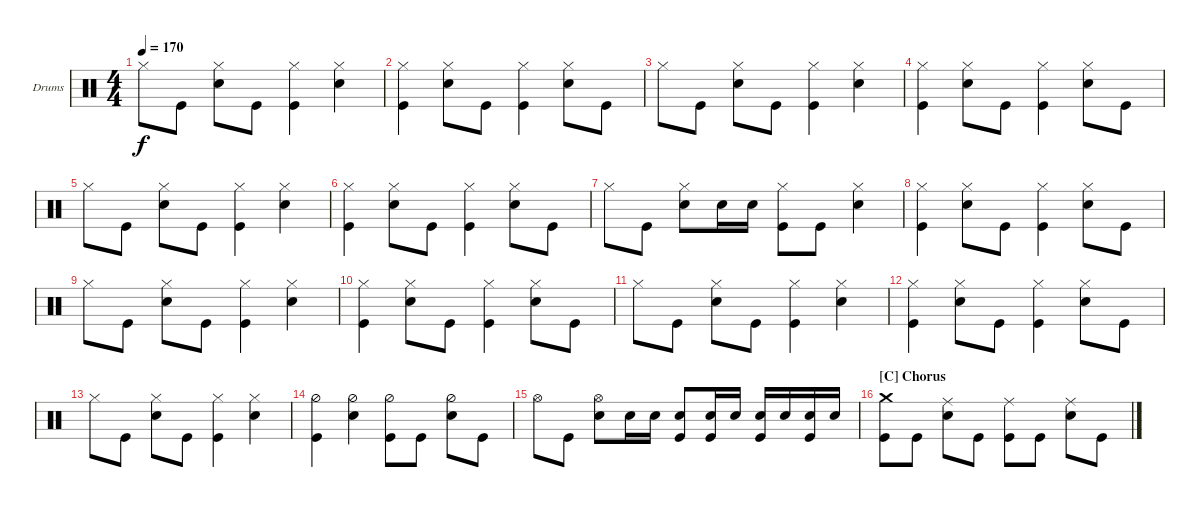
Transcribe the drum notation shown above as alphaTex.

\defaultSystemsLayout 4
\bracketExtendMode groupsimilarinstruments
\firstSystemTrackNameOrientation horizontal
\otherSystemsTrackNameOrientation horizontal
\track ("Benny Horowitz" "Drums") {instrument percussion}
\staff {score}
\articulation defaults
\ts (4 4)
\tempo 170
\clef neutral
\ks c "Hi-Hat (closed)".8{dy f} "Kick (hit)".8
("Snare (hit) 2" "Hi-Hat (closed)").8 "Kick (hit)".8 ("Kick (hit)" "Hi-Hat (closed)").4 ("Snare (hit) 2" "Hi-Hat (closed)").4 |
("Kick (hit)" "Hi-Hat (closed)").4 ("Snare (hit) 2" "Hi-Hat (closed)").8 "Kick (hit)".8 ("Kick (hit)" "Hi-Hat (closed)").4 ("Snare (hit) 2" "Hi-Hat (closed)").8 "Kick (hit)".8 |
"Hi-Hat (closed)".8 "Kick (hit)".8 ("Snare (hit) 2" "Hi-Hat (closed)").8 "Kick (hit)".8 ("Kick (hit)" "Hi-Hat (closed)").4 ("Snare (hit) 2" "Hi-Hat (closed)").4 |
("Kick (hit)" "Hi-Hat (closed)").4 ("Snare (hit) 2" "Hi-Hat (closed)").8 "Kick (hit)".8 ("Kick (hit)" "Hi-Hat (closed)").4 ("Snare (hit) 2" "Hi-Hat (closed)").8 "Kick (hit)".8 |
"Hi-Hat (closed)".8 "Kick (hit)".8 ("Snare (hit) 2" "Hi-Hat (closed)").8 "Kick (hit)".8 ("Kick (hit)" "Hi-Hat (closed)").4 ("Snare (hit) 2" "Hi-Hat (closed)").4 |
("Kick (hit)" "Hi-Hat (closed)").4 ("Snare (hit) 2" "Hi-Hat (closed)").8 "Kick (hit)".8 ("Kick (hit)" "Hi-Hat (closed)").4 ("Snare (hit) 2" "Hi-Hat (closed)").8 "Kick (hit)".8 |
"Hi-Hat (closed)".8 "Kick (hit)".8 ("Snare (hit) 2" "Hi-Hat (closed)").8 "Snare (hit) 2".16 "Snare (hit) 2".16 ("Kick (hit)" "Hi-Hat (closed)").8 "Kick (hit)".8 ("Snare (hit) 2" "Hi-Hat (closed)").4 |
("Kick (hit)" "Hi-Hat (closed)").4 ("Snare (hit) 2" "Hi-Hat (closed)").8 "Kick (hit)".8 ("Kick (hit)" "Hi-Hat (closed)").4 ("Snare (hit) 2" "Hi-Hat (closed)").8 "Kick (hit)".8 |
"Hi-Hat (closed)".8 "Kick (hit)".8 ("Snare (hit) 2" "Hi-Hat (closed)").8 "Kick (hit)".8 ("Kick (hit)" "Hi-Hat (closed)").4 ("Snare (hit) 2" "Hi-Hat (closed)").4 |
("Kick (hit)" "Hi-Hat (closed)").4 ("Snare (hit) 2" "Hi-Hat (closed)").8 "Kick (hit)".8 ("Kick (hit)" "Hi-Hat (closed)").4 ("Snare (hit) 2" "Hi-Hat (closed)").8 "Kick (hit)".8 |
"Hi-Hat (closed)".8 "Kick (hit)".8 ("Snare (hit) 2" "Hi-Hat (closed)").8 "Kick (hit)".8 ("Kick (hit)" "Hi-Hat (closed)").4 ("Snare (hit) 2" "Hi-Hat (closed)").4 |
("Kick (hit)" "Hi-Hat (closed)").4 ("Snare (hit) 2" "Hi-Hat (closed)").8 "Kick (hit)".8 ("Kick (hit)" "Hi-Hat (closed)").4 ("Snare (hit) 2" "Hi-Hat (closed)").8 "Kick (hit)".8 |
"Hi-Hat (closed)".8 "Kick (hit)".8 ("Snare (hit) 2" "Hi-Hat (closed)").8 "Kick (hit)".8 ("Kick (hit)" "Hi-Hat (closed)").4 ("Snare (hit) 2" "Hi-Hat (closed)").4 |
("Kick (hit)" "Hi-Hat (half)").4 ("Snare (hit) 2" "Hi-Hat (half)").4 ("Kick (hit)" "Hi-Hat (half)").8 "Kick (hit)".8 ("Snare (hit) 2" "Hi-Hat (half)").8 "Kick (hit)".8 |
"Hi-Hat (open)".8 "Kick (hit)".8 ("Snare (hit) 2" "Hi-Hat (open)").8 "Snare (hit) 2".16 "Snare (hit) 2".16 ("Snare (hit) 2" "Kick (hit)").8 ("Snare (hit) 2" "Kick (hit)").16 "Snare (hit) 2".16 ("Snare (hit) 2" "Kick (hit)").16 "Snare (hit) 2".16 ("Snare (hit) 2" "Kick (hit)").16 "Snare (hit) 2".16 |
\section ("C" "Chorus")
("Crash medium (hit)" "Kick (hit)").8 "Kick (hit)".8 ("Snare (hit) 2" "Ride (middle)").8 "Kick (hit)".8 ("Kick (hit)" "Ride (middle)").8 "Kick (hit)".8 ("Snare (hit) 2" "Ride (middle)").8 "Kick (hit)".8
